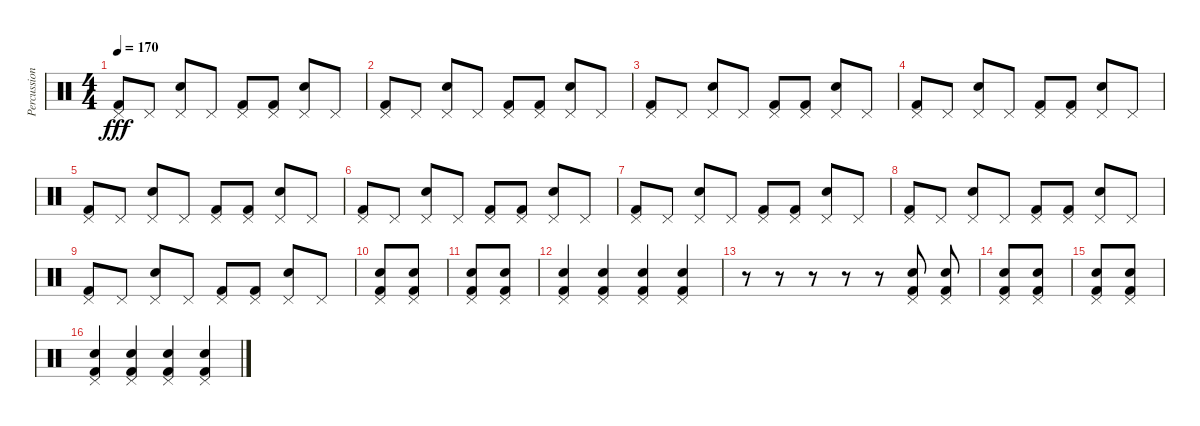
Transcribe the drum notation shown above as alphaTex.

\track ("Percussion" "Percussion") {instrument percussion}
\staff {score}
\articulation defaults
\ts (4 4)
\tempo 170
\clef neutral
\ks c
("Pedal Hi-Hat (hit)" "Kick (hit) 2").8{dy fff} "Pedal Hi-Hat (hit)".8 ("Pedal Hi-Hat (hit)" "Snare (hit) 2").8 "Pedal Hi-Hat (hit)".8 ("Pedal Hi-Hat (hit)" "Kick (hit) 2").8 ("Pedal Hi-Hat (hit)" "Kick (hit) 2").8 ("Pedal Hi-Hat (hit)" "Snare (hit) 2").8 "Pedal Hi-Hat (hit)".8 |
("Pedal Hi-Hat (hit)" "Kick (hit) 2").8 "Pedal Hi-Hat (hit)".8 ("Pedal Hi-Hat (hit)" "Snare (hit) 2").8 "Pedal Hi-Hat (hit)".8 ("Pedal Hi-Hat (hit)" "Kick (hit) 2").8 ("Pedal Hi-Hat (hit)" "Kick (hit) 2").8 ("Pedal Hi-Hat (hit)" "Snare (hit) 2").8 "Pedal Hi-Hat (hit)".8 |
("Pedal Hi-Hat (hit)" "Kick (hit) 2").8 "Pedal Hi-Hat (hit)".8 ("Pedal Hi-Hat (hit)" "Snare (hit) 2").8 "Pedal Hi-Hat (hit)".8 ("Pedal Hi-Hat (hit)" "Kick (hit) 2").8 ("Pedal Hi-Hat (hit)" "Kick (hit) 2").8 ("Pedal Hi-Hat (hit)" "Snare (hit) 2").8 "Pedal Hi-Hat (hit)".8 |
("Pedal Hi-Hat (hit)" "Kick (hit) 2").8 "Pedal Hi-Hat (hit)".8 ("Pedal Hi-Hat (hit)" "Snare (hit) 2").8 "Pedal Hi-Hat (hit)".8 ("Pedal Hi-Hat (hit)" "Kick (hit) 2").8 ("Pedal Hi-Hat (hit)" "Kick (hit) 2").8 ("Pedal Hi-Hat (hit)" "Snare (hit) 2").8 "Pedal Hi-Hat (hit)".8 |
("Pedal Hi-Hat (hit)" "Kick (hit) 2").8 "Pedal Hi-Hat (hit)".8 ("Pedal Hi-Hat (hit)" "Snare (hit) 2").8 "Pedal Hi-Hat (hit)".8 ("Pedal Hi-Hat (hit)" "Kick (hit) 2").8 ("Pedal Hi-Hat (hit)" "Kick (hit) 2").8 ("Pedal Hi-Hat (hit)" "Snare (hit) 2").8 "Pedal Hi-Hat (hit)".8 |
("Pedal Hi-Hat (hit)" "Kick (hit) 2").8 "Pedal Hi-Hat (hit)".8 ("Pedal Hi-Hat (hit)" "Snare (hit) 2").8 "Pedal Hi-Hat (hit)".8 ("Pedal Hi-Hat (hit)" "Kick (hit) 2").8 ("Pedal Hi-Hat (hit)" "Kick (hit) 2").8 ("Pedal Hi-Hat (hit)" "Snare (hit) 2").8 "Pedal Hi-Hat (hit)".8 |
("Pedal Hi-Hat (hit)" "Kick (hit) 2").8 "Pedal Hi-Hat (hit)".8 ("Pedal Hi-Hat (hit)" "Snare (hit) 2").8 "Pedal Hi-Hat (hit)".8 ("Pedal Hi-Hat (hit)" "Kick (hit) 2").8 ("Pedal Hi-Hat (hit)" "Kick (hit) 2").8 ("Pedal Hi-Hat (hit)" "Snare (hit) 2").8 "Pedal Hi-Hat (hit)".8 |
("Pedal Hi-Hat (hit)" "Kick (hit) 2").8 "Pedal Hi-Hat (hit)".8 ("Pedal Hi-Hat (hit)" "Snare (hit) 2").8 "Pedal Hi-Hat (hit)".8 ("Pedal Hi-Hat (hit)" "Kick (hit) 2").8 ("Pedal Hi-Hat (hit)" "Kick (hit) 2").8 ("Pedal Hi-Hat (hit)" "Snare (hit) 2").8 "Pedal Hi-Hat (hit)".8 |
("Pedal Hi-Hat (hit)" "Kick (hit) 2").8 "Pedal Hi-Hat (hit)".8 ("Pedal Hi-Hat (hit)" "Snare (hit) 2").8 "Pedal Hi-Hat (hit)".8 ("Pedal Hi-Hat (hit)" "Kick (hit) 2").8 ("Pedal Hi-Hat (hit)" "Kick (hit) 2").8 ("Pedal Hi-Hat (hit)" "Snare (hit) 2").8 "Pedal Hi-Hat (hit)".8 |
("Pedal Hi-Hat (hit)" "Snare (hit) 2" "Kick (hit) 2").8 ("Pedal Hi-Hat (hit)" "Snare (hit) 2" "Kick (hit) 2").8 |
("Pedal Hi-Hat (hit)" "Snare (hit) 2" "Kick (hit) 2").8 ("Pedal Hi-Hat (hit)" "Snare (hit) 2" "Kick (hit) 2").8 |
("Pedal Hi-Hat (hit)" "Snare (hit) 2" "Kick (hit) 2").4 ("Pedal Hi-Hat (hit)" "Snare (hit) 2" "Kick (hit) 2").4 ("Pedal Hi-Hat (hit)" "Snare (hit) 2" "Kick (hit) 2").4 ("Pedal Hi-Hat (hit)" "Snare (hit) 2" "Kick (hit) 2").4 |
r.8 r.8 r.8 r.8 r.8 ("Pedal Hi-Hat (hit)" "Snare (hit) 2" "Kick (hit) 2").8 ("Pedal Hi-Hat (hit)" "Snare (hit) 2" "Kick (hit) 2").8 |
("Pedal Hi-Hat (hit)" "Snare (hit) 2" "Kick (hit) 2").8 ("Pedal Hi-Hat (hit)" "Snare (hit) 2" "Kick (hit) 2").8 |
("Pedal Hi-Hat (hit)" "Snare (hit) 2" "Kick (hit) 2").8 ("Pedal Hi-Hat (hit)" "Snare (hit) 2" "Kick (hit) 2").8 |
("Pedal Hi-Hat (hit)" "Snare (hit) 2" "Kick (hit) 2").4 ("Pedal Hi-Hat (hit)" "Snare (hit) 2" "Kick (hit) 2").4 ("Pedal Hi-Hat (hit)" "Snare (hit) 2" "Kick (hit) 2").4 ("Pedal Hi-Hat (hit)" "Snare (hit) 2" "Kick (hit) 2").4
